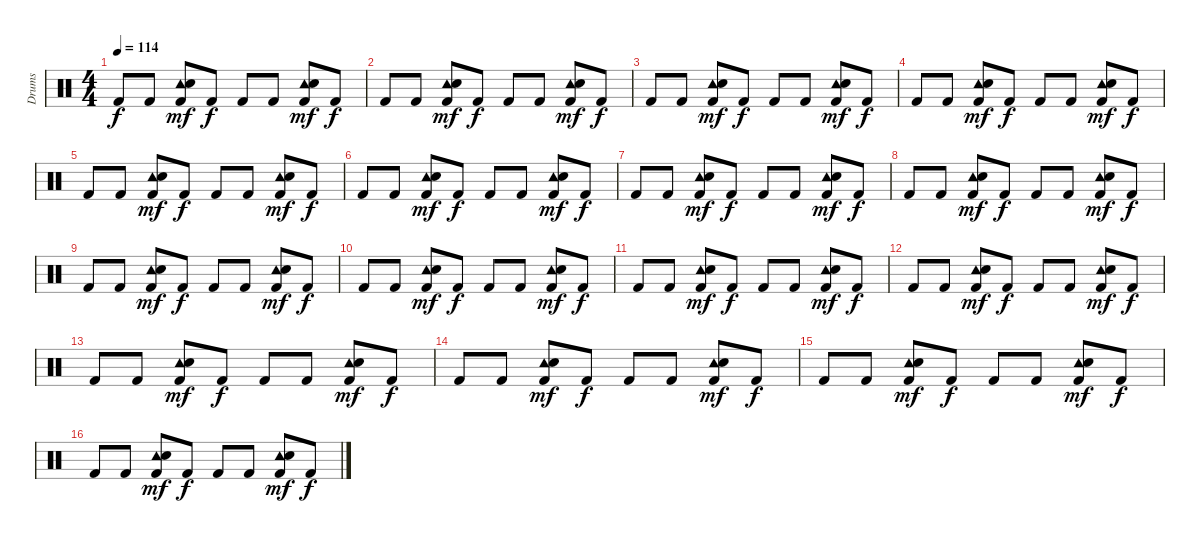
\track ("Drums" "Drums") {instrument percussion}
\staff {score}
\articulation defaults
\ts (4 4)
\tempo 114
\clef neutral
\ks c "Kick (hit) 2".8{dy f} "Kick (hit) 2".8
("Tambourine (hit)" "Electric Snare (hit)" "Kick (hit) 2").8{dy mf} "Kick (hit) 2".8{dy f} "Kick (hit) 2".8 "Kick (hit) 2".8 ("Tambourine (hit)" "Electric Snare (hit)" "Kick (hit) 2").8{dy mf} "Kick (hit) 2".8{dy f} |
"Kick (hit) 2".8 "Kick (hit) 2".8 ("Tambourine (hit)" "Electric Snare (hit)" "Kick (hit) 2").8{dy mf} "Kick (hit) 2".8{dy f} "Kick (hit) 2".8 "Kick (hit) 2".8 ("Tambourine (hit)" "Electric Snare (hit)" "Kick (hit) 2").8{dy mf} "Kick (hit) 2".8{dy f} |
"Kick (hit) 2".8 "Kick (hit) 2".8 ("Tambourine (hit)" "Electric Snare (hit)" "Kick (hit) 2").8{dy mf} "Kick (hit) 2".8{dy f} "Kick (hit) 2".8 "Kick (hit) 2".8 ("Tambourine (hit)" "Electric Snare (hit)" "Kick (hit) 2").8{dy mf} "Kick (hit) 2".8{dy f} |
"Kick (hit) 2".8 "Kick (hit) 2".8 ("Tambourine (hit)" "Electric Snare (hit)" "Kick (hit) 2").8{dy mf} "Kick (hit) 2".8{dy f} "Kick (hit) 2".8 "Kick (hit) 2".8 ("Tambourine (hit)" "Electric Snare (hit)" "Kick (hit) 2").8{dy mf} "Kick (hit) 2".8{dy f} |
"Kick (hit) 2".8 "Kick (hit) 2".8 ("Tambourine (hit)" "Electric Snare (hit)" "Kick (hit) 2").8{dy mf} "Kick (hit) 2".8{dy f} "Kick (hit) 2".8 "Kick (hit) 2".8 ("Tambourine (hit)" "Electric Snare (hit)" "Kick (hit) 2").8{dy mf} "Kick (hit) 2".8{dy f} |
"Kick (hit) 2".8 "Kick (hit) 2".8 ("Tambourine (hit)" "Electric Snare (hit)" "Kick (hit) 2").8{dy mf} "Kick (hit) 2".8{dy f} "Kick (hit) 2".8 "Kick (hit) 2".8 ("Tambourine (hit)" "Electric Snare (hit)" "Kick (hit) 2").8{dy mf} "Kick (hit) 2".8{dy f} |
"Kick (hit) 2".8 "Kick (hit) 2".8 ("Tambourine (hit)" "Electric Snare (hit)" "Kick (hit) 2").8{dy mf} "Kick (hit) 2".8{dy f} "Kick (hit) 2".8 "Kick (hit) 2".8 ("Tambourine (hit)" "Electric Snare (hit)" "Kick (hit) 2").8{dy mf} "Kick (hit) 2".8{dy f} |
"Kick (hit) 2".8 "Kick (hit) 2".8 ("Tambourine (hit)" "Electric Snare (hit)" "Kick (hit) 2").8{dy mf} "Kick (hit) 2".8{dy f} "Kick (hit) 2".8 "Kick (hit) 2".8 ("Tambourine (hit)" "Electric Snare (hit)" "Kick (hit) 2").8{dy mf} "Kick (hit) 2".8{dy f} |
"Kick (hit) 2".8 "Kick (hit) 2".8 ("Tambourine (hit)" "Electric Snare (hit)" "Kick (hit) 2").8{dy mf} "Kick (hit) 2".8{dy f} "Kick (hit) 2".8 "Kick (hit) 2".8 ("Tambourine (hit)" "Electric Snare (hit)" "Kick (hit) 2").8{dy mf} "Kick (hit) 2".8{dy f} |
"Kick (hit) 2".8 "Kick (hit) 2".8 ("Tambourine (hit)" "Electric Snare (hit)" "Kick (hit) 2").8{dy mf} "Kick (hit) 2".8{dy f} "Kick (hit) 2".8 "Kick (hit) 2".8 ("Tambourine (hit)" "Electric Snare (hit)" "Kick (hit) 2").8{dy mf} "Kick (hit) 2".8{dy f} |
"Kick (hit) 2".8 "Kick (hit) 2".8 ("Tambourine (hit)" "Electric Snare (hit)" "Kick (hit) 2").8{dy mf} "Kick (hit) 2".8{dy f} "Kick (hit) 2".8 "Kick (hit) 2".8 ("Tambourine (hit)" "Electric Snare (hit)" "Kick (hit) 2").8{dy mf} "Kick (hit) 2".8{dy f} |
"Kick (hit) 2".8 "Kick (hit) 2".8 ("Tambourine (hit)" "Electric Snare (hit)" "Kick (hit) 2").8{dy mf} "Kick (hit) 2".8{dy f} "Kick (hit) 2".8 "Kick (hit) 2".8 ("Tambourine (hit)" "Electric Snare (hit)" "Kick (hit) 2").8{dy mf} "Kick (hit) 2".8{dy f} |
"Kick (hit) 2".8 "Kick (hit) 2".8 ("Tambourine (hit)" "Electric Snare (hit)" "Kick (hit) 2").8{dy mf} "Kick (hit) 2".8{dy f} "Kick (hit) 2".8 "Kick (hit) 2".8 ("Tambourine (hit)" "Electric Snare (hit)" "Kick (hit) 2").8{dy mf} "Kick (hit) 2".8{dy f} |
"Kick (hit) 2".8 "Kick (hit) 2".8 ("Tambourine (hit)" "Electric Snare (hit)" "Kick (hit) 2").8{dy mf} "Kick (hit) 2".8{dy f} "Kick (hit) 2".8 "Kick (hit) 2".8 ("Tambourine (hit)" "Electric Snare (hit)" "Kick (hit) 2").8{dy mf} "Kick (hit) 2".8{dy f} |
"Kick (hit) 2".8 "Kick (hit) 2".8 ("Tambourine (hit)" "Electric Snare (hit)" "Kick (hit) 2").8{dy mf} "Kick (hit) 2".8{dy f} "Kick (hit) 2".8 "Kick (hit) 2".8 ("Tambourine (hit)" "Electric Snare (hit)" "Kick (hit) 2").8{dy mf} "Kick (hit) 2".8{dy f} |
"Kick (hit) 2".8 "Kick (hit) 2".8 ("Tambourine (hit)" "Electric Snare (hit)" "Kick (hit) 2").8{dy mf} "Kick (hit) 2".8{dy f} "Kick (hit) 2".8 "Kick (hit) 2".8 ("Tambourine (hit)" "Electric Snare (hit)" "Kick (hit) 2").8{dy mf} "Kick (hit) 2".8{dy f}
